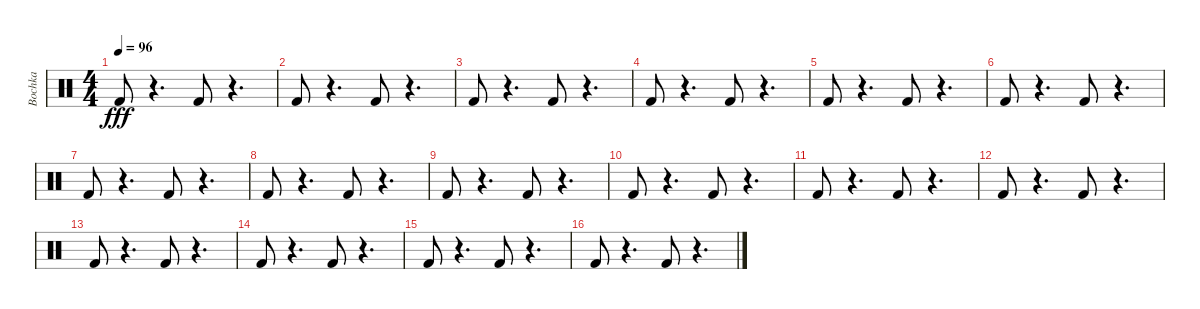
\track ("Bochka" "Bochka") {instrument percussion}
\staff {score}
\articulation defaults
\ts (4 4)
\tempo 96
\clef neutral
\ks c "Kick (hit) 2".8{dy fff}
r.4{d} "Kick (hit) 2".8 r.4{d} |
"Kick (hit) 2".8 r.4{d} "Kick (hit) 2".8 r.4{d} |
"Kick (hit) 2".8 r.4{d} "Kick (hit) 2".8 r.4{d} |
"Kick (hit) 2".8 r.4{d} "Kick (hit) 2".8 r.4{d} |
"Kick (hit) 2".8 r.4{d} "Kick (hit) 2".8 r.4{d} |
"Kick (hit) 2".8 r.4{d} "Kick (hit) 2".8 r.4{d} |
"Kick (hit) 2".8 r.4{d} "Kick (hit) 2".8 r.4{d} |
"Kick (hit) 2".8 r.4{d} "Kick (hit) 2".8 r.4{d} |
"Kick (hit) 2".8 r.4{d} "Kick (hit) 2".8 r.4{d} |
"Kick (hit) 2".8 r.4{d} "Kick (hit) 2".8 r.4{d} |
"Kick (hit) 2".8 r.4{d} "Kick (hit) 2".8 r.4{d} |
"Kick (hit) 2".8 r.4{d} "Kick (hit) 2".8 r.4{d} |
"Kick (hit) 2".8 r.4{d} "Kick (hit) 2".8 r.4{d} |
"Kick (hit) 2".8 r.4{d} "Kick (hit) 2".8 r.4{d} |
"Kick (hit) 2".8 r.4{d} "Kick (hit) 2".8 r.4{d} |
"Kick (hit) 2".8 r.4{d} "Kick (hit) 2".8 r.4{d}
